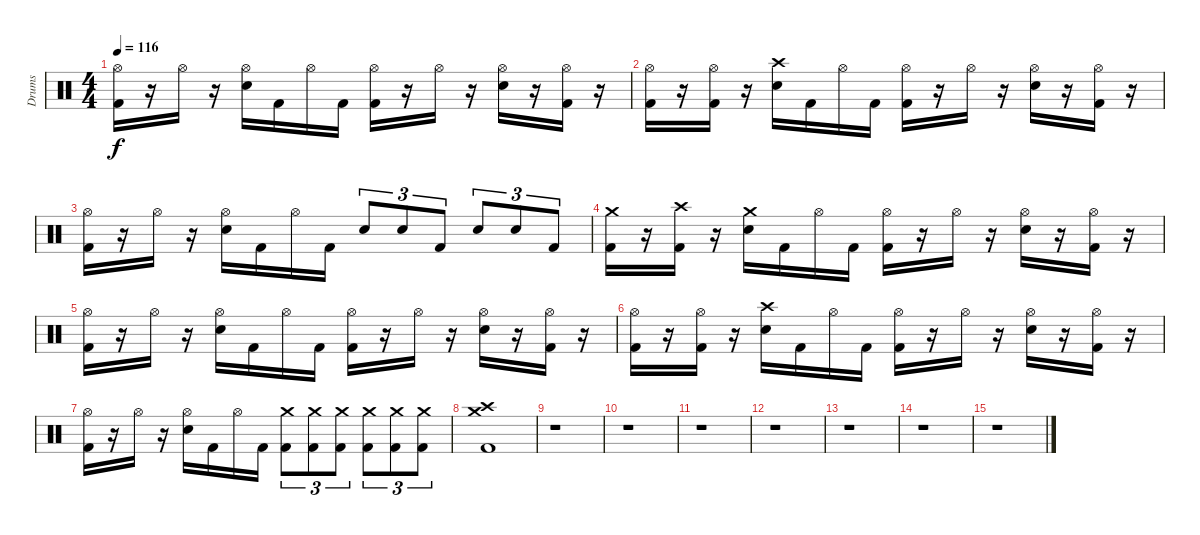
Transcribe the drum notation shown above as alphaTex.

\track ("Drums" "Drums") {instrument percussion}
\staff {score}
\articulation defaults
\ts (4 4)
\tempo 116
\clef neutral
\ks c
("Hi-Hat (open)" "Kick (hit) 2").16{dy f} r.16 "Hi-Hat (open)".16 r.16 ("Hi-Hat (open)" "Snare (hit) 2").16 "Kick (hit) 2".16 "Hi-Hat (open)".16 "Kick (hit) 2".16 ("Hi-Hat (open)" "Kick (hit) 2").16 r.16 "Hi-Hat (open)".16 r.16 ("Hi-Hat (open)" "Snare (hit) 2").16 r.16 ("Hi-Hat (open)" "Kick (hit) 2").16 r.16 |
("Hi-Hat (open)" "Kick (hit) 2").16 r.16 ("Hi-Hat (open)" "Kick (hit) 2").16 r.16 ("Crash high (hit)" "Snare (hit) 2").16 "Kick (hit) 2".16 "Hi-Hat (open)".16 "Kick (hit) 2".16 ("Hi-Hat (open)" "Kick (hit) 2").16 r.16 "Hi-Hat (open)".16 r.16 ("Hi-Hat (open)" "Snare (hit) 2").16 r.16 ("Hi-Hat (open)" "Kick (hit) 2").16 r.16 |
("Hi-Hat (open)" "Kick (hit) 2").16 r.16 "Hi-Hat (open)".16 r.16 ("Hi-Hat (open)" "Snare (hit) 2").16 "Kick (hit) 2".16 "Hi-Hat (open)".16 "Kick (hit) 2".16 "Snare (hit) 2".8{tu (3 2)} "Snare (hit) 2".8{tu (3 2)} "Kick (hit) 2".8{tu (3 2)} "Snare (hit) 2".8{tu (3 2)} "Snare (hit) 2".8{tu (3 2)} "Kick (hit) 2".8{tu (3 2)} |
("Crash medium (hit)" "Kick (hit) 2").16 r.16 ("Crash high (hit)" "Kick (hit) 2").16 r.16 ("Crash medium (hit)" "Snare (hit) 2").16 "Kick (hit) 2".16 "Hi-Hat (open)".16 "Kick (hit) 2".16 ("Hi-Hat (open)" "Kick (hit) 2").16 r.16 "Hi-Hat (open)".16 r.16 ("Hi-Hat (open)" "Snare (hit) 2").16 r.16 ("Hi-Hat (open)" "Kick (hit) 2").16 r.16 |
("Hi-Hat (open)" "Kick (hit) 2").16 r.16 "Hi-Hat (open)".16 r.16 ("Hi-Hat (open)" "Snare (hit) 2").16 "Kick (hit) 2".16 "Hi-Hat (open)".16 "Kick (hit) 2".16 ("Hi-Hat (open)" "Kick (hit) 2").16 r.16 "Hi-Hat (open)".16 r.16 ("Hi-Hat (open)" "Snare (hit) 2").16 r.16 ("Hi-Hat (open)" "Kick (hit) 2").16 r.16 |
("Hi-Hat (open)" "Kick (hit) 2").16 r.16 ("Hi-Hat (open)" "Kick (hit) 2").16 r.16 ("Crash high (hit)" "Snare (hit) 2").16 "Kick (hit) 2".16 "Hi-Hat (open)".16 "Kick (hit) 2".16 ("Hi-Hat (open)" "Kick (hit) 2").16 r.16 "Hi-Hat (open)".16 r.16 ("Hi-Hat (open)" "Snare (hit) 2").16 r.16 ("Hi-Hat (open)" "Kick (hit) 2").16 r.16 |
("Hi-Hat (open)" "Kick (hit) 2").16 r.16 "Hi-Hat (open)".16 r.16 ("Hi-Hat (open)" "Snare (hit) 2").16 "Kick (hit) 2".16 "Hi-Hat (open)".16 "Kick (hit) 2".16 ("Crash medium (hit)" "Kick (hit) 2").8{tu (3 2)} ("Crash medium (hit)" "Kick (hit) 2").8{tu (3 2)} ("Crash medium (hit)" "Kick (hit) 2").8{tu (3 2)} ("Crash medium (hit)" "Kick (hit) 2").8{tu (3 2)} ("Crash medium (hit)" "Kick (hit) 2").8{tu (3 2)} ("Crash medium (hit)" "Kick (hit) 2").8{tu (3 2)} |
("Crash high (hit)" "Crash medium (hit)" "Kick (hit) 2").1 |
r.1 |
r.1 |
r.1 |
r.1 |
r.1 |
r.1 |
r.1
